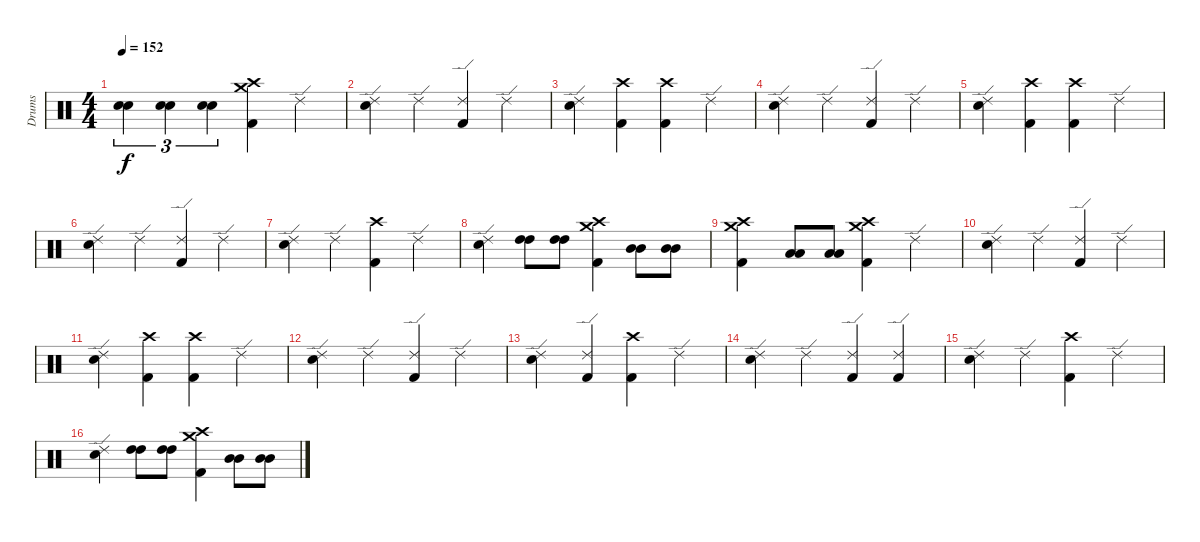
\track ("Drums" "Drums") {instrument percussion}
\staff {score}
\articulation defaults
\ts (4 4)
\tempo 152
\clef neutral
\ks c
("Electric Snare (hit)" "Electric Snare (hit)").4{tu (3 2) dy f} ("Electric Snare (hit)" "Electric Snare (hit)").4{tu (3 2)} ("Electric Snare (hit)" "Electric Snare (hit)").4{tu (3 2)} ("Kick (hit) 2" "Crash high (hit)" "Crash medium (hit)").4 "Ride (edge) 2".4 |
("Electric Snare (hit)" "Ride (edge) 2").4 "Ride (edge) 2".4 ("Kick (hit) 2" "Ride (edge) 2").4 "Ride (edge) 2".4 |
("Electric Snare (hit)" "Ride (edge) 2").4 ("Kick (hit) 2" "Crash high (hit)").4 ("Kick (hit) 2" "Crash high (hit)").4 "Ride (edge) 2".4 |
("Electric Snare (hit)" "Ride (edge) 2").4 "Ride (edge) 2".4 ("Kick (hit) 2" "Ride (edge) 2").4 "Ride (edge) 2".4 |
("Electric Snare (hit)" "Ride (edge) 2").4 ("Kick (hit) 2" "Crash high (hit)").4 ("Kick (hit) 2" "Crash high (hit)").4 "Ride (edge) 2".4 |
("Electric Snare (hit)" "Ride (edge) 2").4 "Ride (edge) 2".4 ("Kick (hit) 2" "Ride (edge) 2").4 "Ride (edge) 2".4 |
("Electric Snare (hit)" "Ride (edge) 2").4 "Ride (edge) 2".4 ("Kick (hit) 2" "Crash high (hit)").4 "Ride (edge) 2".4 |
("Electric Snare (hit)" "Ride (edge) 2").4 ("High Tom (hit)" "High Tom (hit)").8 ("High Tom (hit)" "High Tom (hit)").8 ("Kick (hit) 2" "Crash high (hit)" "Crash medium (hit)").4 ("Mid Tom (hit)" "Mid Tom (hit)").8 ("Mid Tom (hit)" "Mid Tom (hit)").8 |
("Kick (hit) 2" "Crash high (hit)" "Crash medium (hit)").4 ("Low Tom (hit)" "Low Tom (hit)").8 ("Low Tom (hit)" "Low Tom (hit)").8 ("Kick (hit) 2" "Crash high (hit)" "Crash medium (hit)").4 "Ride (edge) 2".4 |
("Electric Snare (hit)" "Ride (edge) 2").4 "Ride (edge) 2".4 ("Kick (hit) 2" "Ride (edge) 2").4 "Ride (edge) 2".4 |
("Electric Snare (hit)" "Ride (edge) 2").4 ("Kick (hit) 2" "Crash high (hit)").4 ("Kick (hit) 2" "Crash high (hit)").4 "Ride (edge) 2".4 |
("Electric Snare (hit)" "Ride (edge) 2").4 "Ride (edge) 2".4 ("Kick (hit) 2" "Ride (edge) 2").4 "Ride (edge) 2".4 |
("Electric Snare (hit)" "Ride (edge) 2").4 ("Kick (hit) 2" "Ride (edge) 2").4 ("Kick (hit) 2" "Crash high (hit)").4 "Ride (edge) 2".4 |
("Electric Snare (hit)" "Ride (edge) 2").4 "Ride (edge) 2".4 ("Kick (hit) 2" "Ride (edge) 2").4 ("Kick (hit) 2" "Ride (edge) 2").4 |
("Electric Snare (hit)" "Ride (edge) 2").4 "Ride (edge) 2".4 ("Kick (hit) 2" "Crash high (hit)").4 "Ride (edge) 2".4 |
("Electric Snare (hit)" "Ride (edge) 2").4 ("High Tom (hit)" "High Tom (hit)").8 ("High Tom (hit)" "High Tom (hit)").8 ("Kick (hit) 2" "Crash high (hit)" "Crash medium (hit)").4 ("Mid Tom (hit)" "Mid Tom (hit)").8 ("Mid Tom (hit)" "Mid Tom (hit)").8
